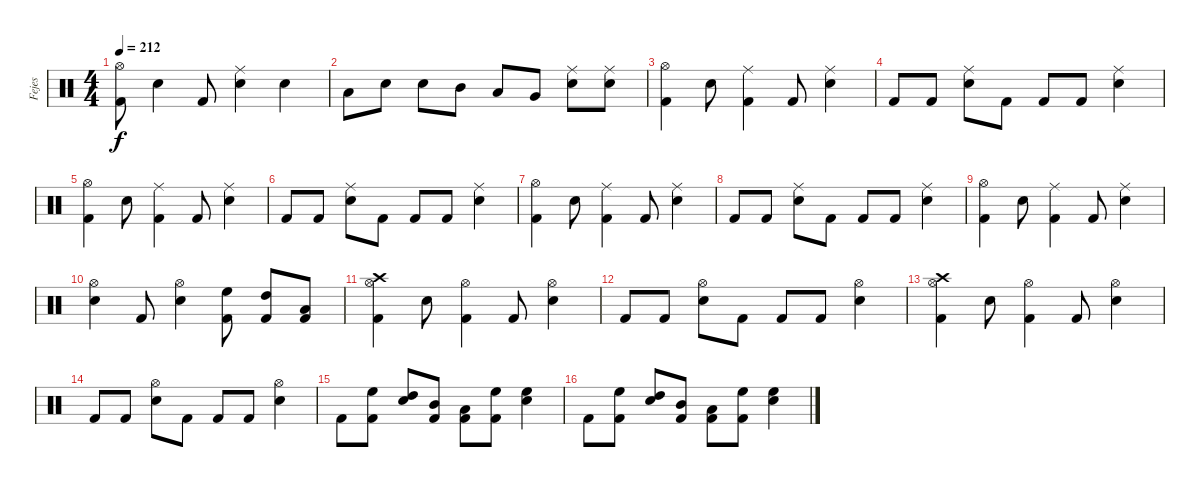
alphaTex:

\track ("Fejes" "Fejes") {instrument percussion}
\staff {score}
\articulation defaults
\ts (4 4)
\tempo 212
\clef neutral
\ks c
("Hi-Hat (open)" "Kick (hit) 2").8{dy f} "Snare (hit) 2".4 "Kick (hit) 2".8 ("Ride (middle)" "Snare (hit) 2").4 "Snare (hit) 2".4 |
"Low Tom (hit)".8 "Snare (hit) 2".8 "Snare (hit) 2".8 "Mid Tom (hit)".8 "Low Tom (hit)".8 "Very Low Tom (hit)".8 ("Ride (middle)" "Snare (hit) 2").8 ("Ride (middle)" "Snare (hit) 2").8 |
("Hi-Hat (open)" "Kick (hit) 2").4 "Snare (hit) 2".8 ("Ride (middle)" "Kick (hit) 2").4 "Kick (hit) 2".8 ("Ride (middle)" "Snare (hit) 2").4 |
"Kick (hit) 2".8 "Kick (hit) 2".8 ("Ride (middle)" "Snare (hit) 2").8 "Kick (hit) 2".8 "Kick (hit) 2".8 "Kick (hit) 2".8 ("Ride (middle)" "Snare (hit) 2").4 |
("Hi-Hat (open)" "Kick (hit) 2").4 "Snare (hit) 2".8 ("Ride (middle)" "Kick (hit) 2").4 "Kick (hit) 2".8 ("Ride (middle)" "Snare (hit) 2").4 |
"Kick (hit) 2".8 "Kick (hit) 2".8 ("Ride (middle)" "Snare (hit) 2").8 "Kick (hit) 2".8 "Kick (hit) 2".8 "Kick (hit) 2".8 ("Ride (middle)" "Snare (hit) 2").4 |
("Hi-Hat (open)" "Kick (hit) 2").4 "Snare (hit) 2".8 ("Ride (middle)" "Kick (hit) 2").4 "Kick (hit) 2".8 ("Ride (middle)" "Snare (hit) 2").4 |
"Kick (hit) 2".8 "Kick (hit) 2".8 ("Ride (middle)" "Snare (hit) 2").8 "Kick (hit) 2".8 "Kick (hit) 2".8 "Kick (hit) 2".8 ("Ride (middle)" "Snare (hit) 2").4 |
("Hi-Hat (open)" "Kick (hit) 2").4 "Snare (hit) 2".8 ("Ride (middle)" "Kick (hit) 2").4 "Kick (hit) 2".8 ("Ride (middle)" "Snare (hit) 2").4 |
("Hi-Hat (open)" "Snare (hit) 2").4 "Kick (hit) 2".8 ("Hi-Hat (open)" "Snare (hit) 2").4 ("High Floor Tom (hit)" "Kick (hit) 2").8 ("High Tom (hit)" "Kick (hit) 2").8 ("Low Tom (hit)" "Kick (hit) 2").8 |
("Crash high (hit)" "Hi-Hat (open)" "Kick (hit) 2").4 "Snare (hit) 2".8 ("Hi-Hat (open)" "Kick (hit) 2").4 "Kick (hit) 2".8 ("Hi-Hat (open)" "Snare (hit) 2").4 |
"Kick (hit) 2".8 "Kick (hit) 2".8 ("Hi-Hat (open)" "Snare (hit) 2").8 "Kick (hit) 2".8 "Kick (hit) 2".8 "Kick (hit) 2".8 ("Hi-Hat (open)" "Snare (hit) 2").4 |
("Crash high (hit)" "Hi-Hat (open)" "Kick (hit) 2").4 "Snare (hit) 2".8 ("Hi-Hat (open)" "Kick (hit) 2").4 "Kick (hit) 2".8 ("Hi-Hat (open)" "Snare (hit) 2").4 |
"Kick (hit) 2".8 "Kick (hit) 2".8 ("Hi-Hat (open)" "Snare (hit) 2").8 "Kick (hit) 2".8 "Kick (hit) 2".8 "Kick (hit) 2".8 ("Hi-Hat (open)" "Snare (hit) 2").4 |
"Kick (hit) 2".8 ("High Floor Tom (hit)" "Kick (hit) 2").8 ("High Tom (hit)" "Snare (hit) 2").8 ("Mid Tom (hit)" "Kick (hit) 2").8 ("Low Tom (hit)" "Kick (hit) 2").8 ("High Floor Tom (hit)" "Kick (hit) 2").8 ("High Floor Tom (hit)" "Snare (hit) 2").4 |
"Kick (hit) 2".8 ("High Floor Tom (hit)" "Kick (hit) 2").8 ("High Tom (hit)" "Snare (hit) 2").8 ("Mid Tom (hit)" "Kick (hit) 2").8 ("Low Tom (hit)" "Kick (hit) 2").8 ("High Floor Tom (hit)" "Kick (hit) 2").8 ("High Floor Tom (hit)" "Snare (hit) 2").4
